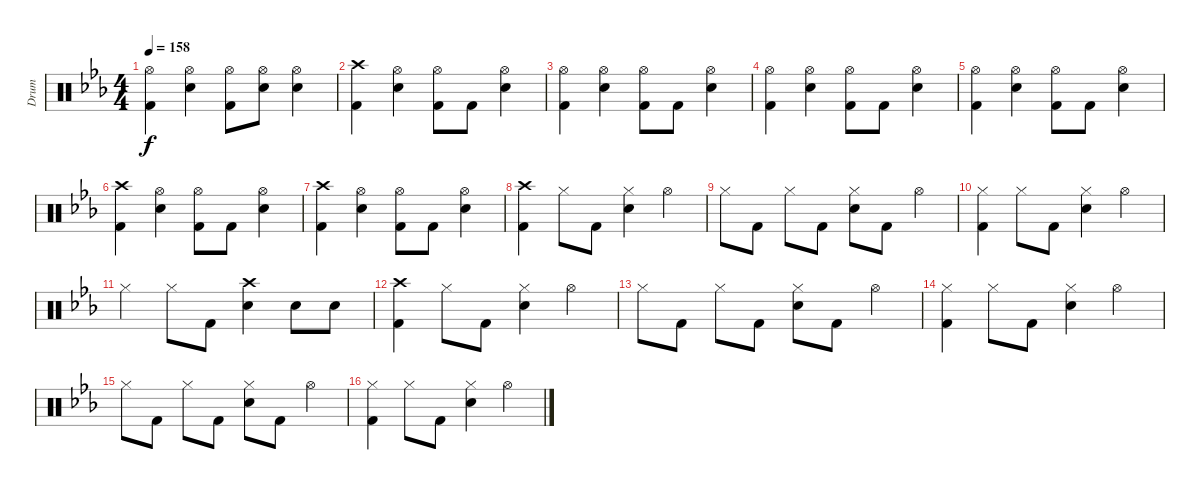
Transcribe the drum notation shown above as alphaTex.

\track ("Drum" "Drum") {instrument percussion}
\staff {score}
\articulation defaults
\ts (4 4)
\tempo 158
\clef neutral
\ks eb
("Hi-Hat (open)" "Kick (hit) 2").4{dy f} ("Hi-Hat (open)" "Snare (hit) 2").4 ("Hi-Hat (open)" "Kick (hit) 2").8 ("Hi-Hat (open)" "Snare (hit) 2").8 ("Hi-Hat (open)" "Snare (hit) 2").4 |
("Crash high (hit)" "Kick (hit) 2").4 ("Hi-Hat (open)" "Snare (hit) 2").4 ("Hi-Hat (open)" "Kick (hit) 2").8 "Kick (hit) 2".8 ("Hi-Hat (open)" "Snare (hit) 2").4 |
("Hi-Hat (open)" "Kick (hit) 2").4 ("Hi-Hat (open)" "Snare (hit) 2").4 ("Hi-Hat (open)" "Kick (hit) 2").8 "Kick (hit) 2".8 ("Hi-Hat (open)" "Snare (hit) 2").4 |
("Hi-Hat (open)" "Kick (hit) 2").4 ("Hi-Hat (open)" "Snare (hit) 2").4 ("Hi-Hat (open)" "Kick (hit) 2").8 "Kick (hit) 2".8 ("Hi-Hat (open)" "Snare (hit) 2").4 |
("Hi-Hat (open)" "Kick (hit) 2").4 ("Hi-Hat (open)" "Snare (hit) 2").4 ("Hi-Hat (open)" "Kick (hit) 2").8 "Kick (hit) 2".8 ("Hi-Hat (open)" "Snare (hit) 2").4 |
("Crash high (hit)" "Kick (hit) 2").4 ("Hi-Hat (open)" "Snare (hit) 2").4 ("Hi-Hat (open)" "Kick (hit) 2").8 "Kick (hit) 2".8 ("Hi-Hat (open)" "Snare (hit) 2").4 |
("Crash high (hit)" "Kick (hit) 2").4 ("Hi-Hat (open)" "Snare (hit) 2").4 ("Hi-Hat (open)" "Kick (hit) 2").8 "Kick (hit) 2".8 ("Hi-Hat (open)" "Snare (hit) 2").4 |
("Crash high (hit)" "Kick (hit) 2").4 "Hi-Hat (closed)".8 "Kick (hit) 2".8 ("Hi-Hat (closed)" "Snare (hit) 2").4 "Hi-Hat (open)".4 |
"Hi-Hat (closed)".8 "Kick (hit) 2".8 "Hi-Hat (closed)".8 "Kick (hit) 2".8 ("Hi-Hat (closed)" "Snare (hit) 2").8 "Kick (hit) 2".8 "Hi-Hat (open)".4 |
("Hi-Hat (closed)" "Kick (hit) 2").4 "Hi-Hat (closed)".8 "Kick (hit) 2".8 ("Hi-Hat (closed)" "Snare (hit) 2").4 "Hi-Hat (open)".4 |
"Hi-Hat (closed)".4 "Hi-Hat (closed)".8 "Kick (hit) 2".8 ("Crash high (hit)" "Snare (hit) 2").4 "Snare (hit) 2".8 "Snare (hit) 2".8 |
("Crash high (hit)" "Kick (hit) 2").4 "Hi-Hat (closed)".8 "Kick (hit) 2".8 ("Hi-Hat (closed)" "Snare (hit) 2").4 "Hi-Hat (open)".4 |
"Hi-Hat (closed)".8 "Kick (hit) 2".8 "Hi-Hat (closed)".8 "Kick (hit) 2".8 ("Hi-Hat (closed)" "Snare (hit) 2").8 "Kick (hit) 2".8 "Hi-Hat (open)".4 |
("Hi-Hat (closed)" "Kick (hit) 2").4 "Hi-Hat (closed)".8 "Kick (hit) 2".8 ("Hi-Hat (closed)" "Snare (hit) 2").4 "Hi-Hat (open)".4 |
"Hi-Hat (closed)".8 "Kick (hit) 2".8 "Hi-Hat (closed)".8 "Kick (hit) 2".8 ("Hi-Hat (closed)" "Snare (hit) 2").8 "Kick (hit) 2".8 "Hi-Hat (open)".4 |
("Hi-Hat (closed)" "Kick (hit) 2").4 "Hi-Hat (closed)".8 "Kick (hit) 2".8 ("Hi-Hat (closed)" "Snare (hit) 2").4 "Hi-Hat (open)".4
